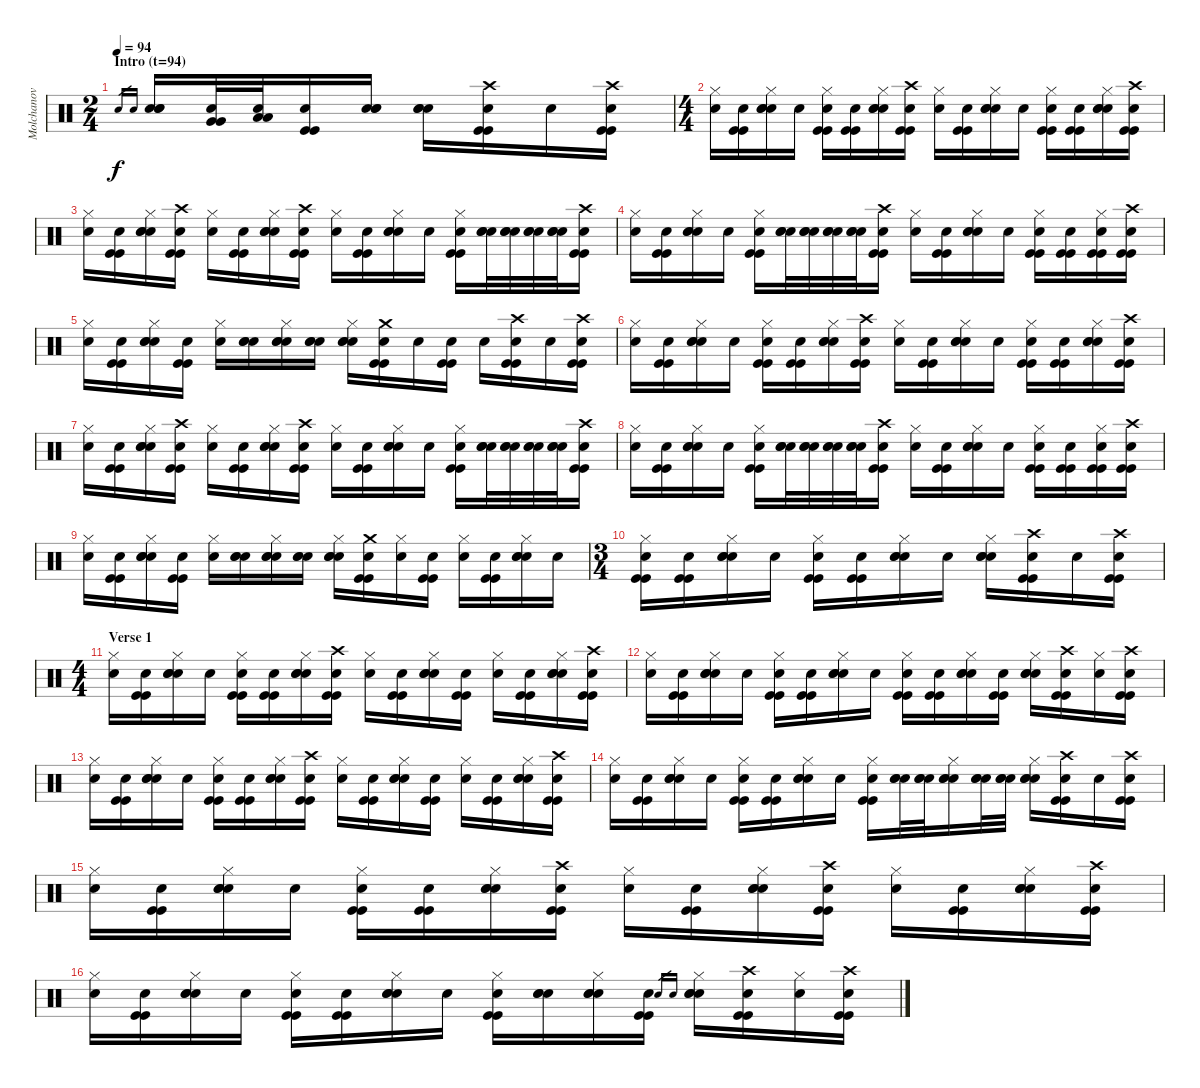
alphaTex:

\track ("Molchanov" "Molchanov") {instrument percussion}
\staff {score}
\articulation defaults
\ts (2 4)
\section ("" "Intro (t=94)")
\tempo 94
\clef neutral
\ks c "Electric Snare (hit)".16{gr dy f} "Electric Snare (hit)".16{gr}
("Electric Snare (hit)" "Electric Snare (hit)" "Snare (hit)"{x}).16 ("Very Low Tom (hit)" "Very Low Tom (hit)" "Snare (hit)"{x}).32 ("Low Floor Tom (hit)" "Low Floor Tom (hit)" "Snare (hit)"{x}).32 ("Kick (hit)" "Kick (hit)" "Snare (hit)"{x}).16 ("Electric Snare (hit)" "Electric Snare (hit)" "Snare (hit)"{x}).16 ("Electric Snare (hit)" "Electric Snare (hit)" "Snare (hit)"{x}).16 ("Crash high (hit)" "Kick (hit)" "Kick (hit)" "Snare (hit)"{x}).16 "Snare (hit)"{x}.16 ("Crash high (hit)" "Kick (hit)" "Kick (hit)" "Snare (hit)"{x}).16 |
\ts (4 4)
("Hi-Hat (closed)" "Snare (hit)"{x}).16 ("Kick (hit)" "Kick (hit)" "Snare (hit)"{x}).16 ("Hi-Hat (closed)" "Electric Snare (hit)" "Electric Snare (hit)" "Snare (hit)"{x}).16 "Snare (hit)"{x}.16 ("Hi-Hat (closed)" "Kick (hit)" "Kick (hit)" "Snare (hit)"{x}).16 ("Kick (hit)" "Kick (hit)" "Snare (hit)"{x}).16 ("Hi-Hat (closed)" "Electric Snare (hit)" "Electric Snare (hit)" "Snare (hit)"{x}).16 ("Crash high (hit)" "Kick (hit)" "Kick (hit)" "Snare (hit)"{x}).16 ("Hi-Hat (closed)" "Snare (hit)"{x}).16 ("Kick (hit)" "Kick (hit)" "Snare (hit)"{x}).16 ("Hi-Hat (closed)" "Electric Snare (hit)" "Electric Snare (hit)" "Snare (hit)"{x}).16 "Snare (hit)"{x}.16 ("Hi-Hat (closed)" "Kick (hit)" "Kick (hit)" "Snare (hit)"{x}).16 ("Kick (hit)" "Kick (hit)" "Snare (hit)"{x}).16 ("Hi-Hat (closed)" "Electric Snare (hit)" "Electric Snare (hit)" "Snare (hit)"{x}).16 ("Crash high (hit)" "Kick (hit)" "Kick (hit)" "Snare (hit)"{x}).16 |
("Hi-Hat (closed)" "Snare (hit)"{x}).16 ("Kick (hit)" "Kick (hit)" "Snare (hit)"{x}).16 ("Hi-Hat (closed)" "Electric Snare (hit)" "Electric Snare (hit)" "Snare (hit)"{x}).16 ("Crash high (hit)" "Kick (hit)" "Kick (hit)" "Snare (hit)"{x}).16 ("Hi-Hat (closed)" "Snare (hit)"{x}).16 ("Kick (hit)" "Kick (hit)" "Snare (hit)"{x}).16 ("Hi-Hat (closed)" "Electric Snare (hit)" "Electric Snare (hit)" "Snare (hit)"{x}).16 ("Crash high (hit)" "Kick (hit)" "Kick (hit)" "Snare (hit)"{x}).16 ("Hi-Hat (closed)" "Snare (hit)"{x}).16 ("Kick (hit)" "Kick (hit)" "Snare (hit)"{x}).16 ("Hi-Hat (closed)" "Electric Snare (hit)" "Electric Snare (hit)" "Snare (hit)"{x}).16 "Snare (hit)"{x}.16 ("Hi-Hat (closed)" "Kick (hit)" "Kick (hit)" "Snare (hit)"{x}).16 ("Electric Snare (hit)" "Electric Snare (hit)" "Snare (hit)"{x}).32 ("Electric Snare (hit)" "Electric Snare (hit)" "Snare (hit)"{x}).32 ("Electric Snare (hit)" "Electric Snare (hit)" "Snare (hit)"{x}).32 ("Electric Snare (hit)" "Electric Snare (hit)" "Snare (hit)"{x}).32 ("Crash high (hit)" "Kick (hit)" "Kick (hit)" "Snare (hit)"{x}).16 |
("Hi-Hat (closed)" "Snare (hit)"{x}).16 ("Kick (hit)" "Kick (hit)" "Snare (hit)"{x}).16 ("Hi-Hat (closed)" "Electric Snare (hit)" "Electric Snare (hit)" "Snare (hit)"{x}).16 "Snare (hit)"{x}.16 ("Hi-Hat (closed)" "Kick (hit)" "Kick (hit)" "Snare (hit)"{x}).16 ("Electric Snare (hit)" "Electric Snare (hit)" "Snare (hit)"{x}).32 ("Electric Snare (hit)" "Electric Snare (hit)" "Snare (hit)"{x}).32 ("Electric Snare (hit)" "Electric Snare (hit)" "Snare (hit)"{x}).32 ("Electric Snare (hit)" "Electric Snare (hit)" "Snare (hit)"{x}).32 ("Crash high (hit)" "Kick (hit)" "Kick (hit)" "Snare (hit)"{x}).16 ("Hi-Hat (closed)" "Snare (hit)"{x}).16 ("Kick (hit)" "Kick (hit)" "Snare (hit)"{x}).16 ("Hi-Hat (closed)" "Electric Snare (hit)" "Electric Snare (hit)" "Snare (hit)"{x}).16 "Snare (hit)"{x}.16 ("Hi-Hat (closed)" "Kick (hit)" "Kick (hit)" "Snare (hit)"{x}).16 ("Kick (hit)" "Kick (hit)" "Snare (hit)"{x}).16 ("Hi-Hat (closed)" "Kick (hit)" "Kick (hit)" "Snare (hit)"{x}).16 ("Crash high (hit)" "Kick (hit)" "Kick (hit)" "Snare (hit)"{x}).16 |
("Hi-Hat (closed)" "Snare (hit)"{x}).16 ("Kick (hit)" "Kick (hit)" "Snare (hit)"{x}).16 ("Hi-Hat (closed)" "Electric Snare (hit)" "Electric Snare (hit)" "Snare (hit)"{x}).16 ("Kick (hit)" "Kick (hit)" "Snare (hit)"{x}).16 ("Hi-Hat (closed)" "Snare (hit)"{x}).16 ("Electric Snare (hit)" "Electric Snare (hit)" "Snare (hit)"{x}).16 ("Hi-Hat (closed)" "Electric Snare (hit)" "Electric Snare (hit)" "Snare (hit)"{x}).16 ("Electric Snare (hit)" "Electric Snare (hit)" "Snare (hit)"{x}).16 ("Hi-Hat (closed)" "Electric Snare (hit)" "Electric Snare (hit)" "Snare (hit)"{x}).16 ("Crash medium (hit)" "Kick (hit)" "Kick (hit)" "Snare (hit)"{x}).16 "Snare (hit)"{x}.16 ("Kick (hit)" "Kick (hit)" "Snare (hit)"{x}).16 "Snare (hit)"{x}.16 ("Crash high (hit)" "Kick (hit)" "Kick (hit)" "Snare (hit)"{x}).16 "Snare (hit)"{x}.16 ("Crash high (hit)" "Kick (hit)" "Kick (hit)" "Snare (hit)"{x}).16 |
("Hi-Hat (closed)" "Snare (hit)"{x}).16 ("Kick (hit)" "Kick (hit)" "Snare (hit)"{x}).16 ("Hi-Hat (closed)" "Electric Snare (hit)" "Electric Snare (hit)" "Snare (hit)"{x}).16 "Snare (hit)"{x}.16 ("Hi-Hat (closed)" "Kick (hit)" "Kick (hit)" "Snare (hit)"{x}).16 ("Kick (hit)" "Kick (hit)" "Snare (hit)"{x}).16 ("Hi-Hat (closed)" "Electric Snare (hit)" "Electric Snare (hit)" "Snare (hit)"{x}).16 ("Crash high (hit)" "Kick (hit)" "Kick (hit)" "Snare (hit)"{x}).16 ("Hi-Hat (closed)" "Snare (hit)"{x}).16 ("Kick (hit)" "Kick (hit)" "Snare (hit)"{x}).16 ("Hi-Hat (closed)" "Electric Snare (hit)" "Electric Snare (hit)" "Snare (hit)"{x}).16 "Snare (hit)"{x}.16 ("Hi-Hat (closed)" "Kick (hit)" "Kick (hit)" "Snare (hit)"{x}).16 ("Kick (hit)" "Kick (hit)" "Snare (hit)"{x}).16 ("Hi-Hat (closed)" "Electric Snare (hit)" "Electric Snare (hit)" "Snare (hit)"{x}).16 ("Crash high (hit)" "Kick (hit)" "Kick (hit)" "Snare (hit)"{x}).16 |
("Hi-Hat (closed)" "Snare (hit)"{x}).16 ("Kick (hit)" "Kick (hit)" "Snare (hit)"{x}).16 ("Hi-Hat (closed)" "Electric Snare (hit)" "Electric Snare (hit)" "Snare (hit)"{x}).16 ("Crash high (hit)" "Kick (hit)" "Kick (hit)" "Snare (hit)"{x}).16 ("Hi-Hat (closed)" "Snare (hit)"{x}).16 ("Kick (hit)" "Kick (hit)" "Snare (hit)"{x}).16 ("Hi-Hat (closed)" "Electric Snare (hit)" "Electric Snare (hit)" "Snare (hit)"{x}).16 ("Crash high (hit)" "Kick (hit)" "Kick (hit)" "Snare (hit)"{x}).16 ("Hi-Hat (closed)" "Snare (hit)"{x}).16 ("Kick (hit)" "Kick (hit)" "Snare (hit)"{x}).16 ("Hi-Hat (closed)" "Electric Snare (hit)" "Electric Snare (hit)" "Snare (hit)"{x}).16 "Snare (hit)"{x}.16 ("Hi-Hat (closed)" "Kick (hit)" "Kick (hit)" "Snare (hit)"{x}).16 ("Electric Snare (hit)" "Electric Snare (hit)" "Snare (hit)"{x}).32 ("Electric Snare (hit)" "Electric Snare (hit)" "Snare (hit)"{x}).32 ("Electric Snare (hit)" "Electric Snare (hit)" "Snare (hit)"{x}).32 ("Electric Snare (hit)" "Electric Snare (hit)" "Snare (hit)"{x}).32 ("Crash high (hit)" "Kick (hit)" "Kick (hit)" "Snare (hit)"{x}).16 |
("Hi-Hat (closed)" "Snare (hit)"{x}).16 ("Kick (hit)" "Kick (hit)" "Snare (hit)"{x}).16 ("Hi-Hat (closed)" "Electric Snare (hit)" "Electric Snare (hit)" "Snare (hit)"{x}).16 "Snare (hit)"{x}.16 ("Hi-Hat (closed)" "Kick (hit)" "Kick (hit)" "Snare (hit)"{x}).16 ("Electric Snare (hit)" "Electric Snare (hit)" "Snare (hit)"{x}).32 ("Electric Snare (hit)" "Electric Snare (hit)" "Snare (hit)"{x}).32 ("Electric Snare (hit)" "Electric Snare (hit)" "Snare (hit)"{x}).32 ("Electric Snare (hit)" "Electric Snare (hit)" "Snare (hit)"{x}).32 ("Crash high (hit)" "Kick (hit)" "Kick (hit)" "Snare (hit)"{x}).16 ("Hi-Hat (closed)" "Snare (hit)"{x}).16 ("Kick (hit)" "Kick (hit)" "Snare (hit)"{x}).16 ("Hi-Hat (closed)" "Electric Snare (hit)" "Electric Snare (hit)" "Snare (hit)"{x}).16 "Snare (hit)"{x}.16 ("Hi-Hat (closed)" "Kick (hit)" "Kick (hit)" "Snare (hit)"{x}).16 ("Kick (hit)" "Kick (hit)" "Snare (hit)"{x}).16 ("Hi-Hat (closed)" "Kick (hit)" "Kick (hit)" "Snare (hit)"{x}).16 ("Crash high (hit)" "Kick (hit)" "Kick (hit)" "Snare (hit)"{x}).16 |
("Hi-Hat (closed)" "Snare (hit)"{x}).16 ("Kick (hit)" "Kick (hit)" "Snare (hit)"{x}).16 ("Hi-Hat (closed)" "Electric Snare (hit)" "Electric Snare (hit)" "Snare (hit)"{x}).16 ("Kick (hit)" "Kick (hit)" "Snare (hit)"{x}).16 ("Hi-Hat (closed)" "Snare (hit)"{x}).16 ("Electric Snare (hit)" "Electric Snare (hit)" "Snare (hit)"{x}).16 ("Hi-Hat (closed)" "Electric Snare (hit)" "Electric Snare (hit)" "Snare (hit)"{x}).16 ("Electric Snare (hit)" "Electric Snare (hit)" "Snare (hit)"{x}).16 ("Hi-Hat (closed)" "Electric Snare (hit)" "Electric Snare (hit)" "Snare (hit)"{x}).16 ("Crash medium (hit)" "Kick (hit)" "Kick (hit)" "Snare (hit)"{x}).16 ("Hi-Hat (closed)" "Snare (hit)"{x}).16 ("Kick (hit)" "Kick (hit)" "Snare (hit)"{x}).16 ("Hi-Hat (closed)" "Snare (hit)"{x}).16 ("Kick (hit)" "Kick (hit)" "Snare (hit)"{x}).16 ("Hi-Hat (closed)" "Electric Snare (hit)" "Electric Snare (hit)" "Snare (hit)"{x}).16 "Snare (hit)"{x}.16 |
\ts (3 4)
("Hi-Hat (closed)" "Kick (hit)" "Kick (hit)" "Snare (hit)"{x}).16 ("Kick (hit)" "Kick (hit)" "Snare (hit)"{x}).16 ("Hi-Hat (closed)" "Electric Snare (hit)" "Electric Snare (hit)" "Snare (hit)"{x}).16 "Snare (hit)"{x}.16 ("Hi-Hat (closed)" "Kick (hit)" "Kick (hit)" "Snare (hit)"{x}).16 ("Kick (hit)" "Kick (hit)" "Snare (hit)"{x}).16 ("Hi-Hat (closed)" "Electric Snare (hit)" "Electric Snare (hit)" "Snare (hit)"{x}).16 "Snare (hit)"{x}.16 ("Hi-Hat (closed)" "Electric Snare (hit)" "Electric Snare (hit)" "Snare (hit)"{x}).16 ("Crash high (hit)" "Kick (hit)" "Kick (hit)" "Snare (hit)"{x}).16 "Snare (hit)"{x}.16 ("Crash high (hit)" "Kick (hit)" "Kick (hit)" "Snare (hit)"{x}).16 |
\ts (4 4)
\section ("" "Verse 1")
("Hi-Hat (closed)" "Snare (hit)"{x}).16 ("Kick (hit)" "Kick (hit)" "Snare (hit)"{x}).16 ("Hi-Hat (closed)" "Electric Snare (hit)" "Electric Snare (hit)" "Snare (hit)"{x}).16 "Snare (hit)"{x}.16 ("Hi-Hat (closed)" "Kick (hit)" "Kick (hit)" "Snare (hit)"{x}).16 ("Kick (hit)" "Kick (hit)" "Snare (hit)"{x}).16 ("Hi-Hat (closed)" "Electric Snare (hit)" "Electric Snare (hit)" "Snare (hit)"{x}).16 ("Crash high (hit)" "Kick (hit)" "Kick (hit)" "Snare (hit)"{x}).16 ("Hi-Hat (closed)" "Snare (hit)"{x}).16 ("Kick (hit)" "Kick (hit)" "Snare (hit)"{x}).16 ("Hi-Hat (closed)" "Electric Snare (hit)" "Electric Snare (hit)" "Snare (hit)"{x}).16 ("Kick (hit)" "Kick (hit)" "Snare (hit)"{x}).16 ("Hi-Hat (closed)" "Snare (hit)"{x}).16 ("Kick (hit)" "Kick (hit)" "Snare (hit)"{x}).16 ("Hi-Hat (closed)" "Electric Snare (hit)" "Electric Snare (hit)" "Snare (hit)"{x}).16 ("Crash high (hit)" "Kick (hit)" "Kick (hit)" "Snare (hit)"{x}).16 |
("Hi-Hat (closed)" "Snare (hit)"{x}).16 ("Kick (hit)" "Kick (hit)" "Snare (hit)"{x}).16 ("Hi-Hat (closed)" "Electric Snare (hit)" "Electric Snare (hit)" "Snare (hit)"{x}).16 "Snare (hit)"{x}.16 ("Hi-Hat (closed)" "Kick (hit)" "Kick (hit)" "Snare (hit)"{x}).16 ("Kick (hit)" "Kick (hit)" "Snare (hit)"{x}).16 ("Hi-Hat (closed)" "Electric Snare (hit)" "Electric Snare (hit)" "Snare (hit)"{x}).16 "Snare (hit)"{x}.16 ("Hi-Hat (closed)" "Kick (hit)" "Kick (hit)" "Snare (hit)"{x}).16 ("Kick (hit)" "Kick (hit)" "Snare (hit)"{x}).16 ("Hi-Hat (closed)" "Electric Snare (hit)" "Electric Snare (hit)" "Snare (hit)"{x}).16 ("Kick (hit)" "Kick (hit)" "Snare (hit)"{x}).16 ("Hi-Hat (closed)" "Electric Snare (hit)" "Electric Snare (hit)" "Snare (hit)"{x}).16 ("Crash high (hit)" "Kick (hit)" "Kick (hit)" "Snare (hit)"{x}).16 ("Hi-Hat (closed)" "Snare (hit)"{x}).16 ("Crash high (hit)" "Kick (hit)" "Kick (hit)" "Snare (hit)"{x}).16 |
("Hi-Hat (closed)" "Snare (hit)"{x}).16 ("Kick (hit)" "Kick (hit)" "Snare (hit)"{x}).16 ("Hi-Hat (closed)" "Electric Snare (hit)" "Electric Snare (hit)" "Snare (hit)"{x}).16 "Snare (hit)"{x}.16 ("Hi-Hat (closed)" "Kick (hit)" "Kick (hit)" "Snare (hit)"{x}).16 ("Kick (hit)" "Kick (hit)" "Snare (hit)"{x}).16 ("Hi-Hat (closed)" "Electric Snare (hit)" "Electric Snare (hit)" "Snare (hit)"{x}).16 ("Crash high (hit)" "Kick (hit)" "Kick (hit)" "Snare (hit)"{x}).16 ("Hi-Hat (closed)" "Snare (hit)"{x}).16 ("Kick (hit)" "Kick (hit)" "Snare (hit)"{x}).16 ("Hi-Hat (closed)" "Electric Snare (hit)" "Electric Snare (hit)" "Snare (hit)"{x}).16 ("Kick (hit)" "Kick (hit)" "Snare (hit)"{x}).16 ("Hi-Hat (closed)" "Snare (hit)"{x}).16 ("Kick (hit)" "Kick (hit)" "Snare (hit)"{x}).16 ("Hi-Hat (closed)" "Electric Snare (hit)" "Electric Snare (hit)" "Snare (hit)"{x}).16 ("Crash high (hit)" "Kick (hit)" "Kick (hit)" "Snare (hit)"{x}).16 |
("Hi-Hat (closed)" "Snare (hit)"{x}).16 ("Kick (hit)" "Kick (hit)" "Snare (hit)"{x}).16 ("Hi-Hat (closed)" "Electric Snare (hit)" "Electric Snare (hit)" "Snare (hit)"{x}).16 "Snare (hit)"{x}.16 ("Hi-Hat (closed)" "Kick (hit)" "Kick (hit)" "Snare (hit)"{x}).16 ("Kick (hit)" "Kick (hit)" "Snare (hit)"{x}).16 ("Hi-Hat (closed)" "Electric Snare (hit)" "Electric Snare (hit)" "Snare (hit)"{x}).16 "Snare (hit)"{x}.16 ("Hi-Hat (closed)" "Kick (hit)" "Kick (hit)" "Snare (hit)"{x}).16 ("Electric Snare (hit)" "Electric Snare (hit)" "Snare (hit)"{x}).32 ("Electric Snare (hit)" "Electric Snare (hit)" "Snare (hit)"{x}).32 ("Hi-Hat (closed)" "Electric Snare (hit)" "Electric Snare (hit)" "Snare (hit)"{x}).16 ("Electric Snare (hit)" "Electric Snare (hit)" "Snare (hit)"{x}).32 ("Electric Snare (hit)" "Electric Snare (hit)" "Snare (hit)"{x}).32 ("Hi-Hat (closed)" "Electric Snare (hit)" "Electric Snare (hit)" "Snare (hit)"{x}).16 ("Crash high (hit)" "Kick (hit)" "Kick (hit)" "Snare (hit)"{x}).16 "Snare (hit)"{x}.16 ("Crash high (hit)" "Kick (hit)" "Kick (hit)" "Snare (hit)"{x}).16 |
("Hi-Hat (closed)" "Snare (hit)"{x}).16 ("Kick (hit)" "Kick (hit)" "Snare (hit)"{x}).16 ("Hi-Hat (closed)" "Electric Snare (hit)" "Electric Snare (hit)" "Snare (hit)"{x}).16 "Snare (hit)"{x}.16 ("Hi-Hat (closed)" "Kick (hit)" "Kick (hit)" "Snare (hit)"{x}).16 ("Kick (hit)" "Kick (hit)" "Snare (hit)"{x}).16 ("Hi-Hat (closed)" "Electric Snare (hit)" "Electric Snare (hit)" "Snare (hit)"{x}).16 ("Crash high (hit)" "Kick (hit)" "Kick (hit)" "Snare (hit)"{x}).16 ("Hi-Hat (closed)" "Snare (hit)"{x}).16 ("Kick (hit)" "Kick (hit)" "Snare (hit)"{x}).16 ("Hi-Hat (closed)" "Electric Snare (hit)" "Electric Snare (hit)" "Snare (hit)"{x}).16 ("Crash high (hit)" "Kick (hit)" "Kick (hit)" "Snare (hit)"{x}).16 ("Hi-Hat (closed)" "Snare (hit)"{x}).16 ("Kick (hit)" "Kick (hit)" "Snare (hit)"{x}).16 ("Hi-Hat (closed)" "Electric Snare (hit)" "Electric Snare (hit)" "Snare (hit)"{x}).16 ("Crash high (hit)" "Kick (hit)" "Kick (hit)" "Snare (hit)"{x}).16 |
("Hi-Hat (closed)" "Snare (hit)"{x}).16 ("Kick (hit)" "Kick (hit)" "Snare (hit)"{x}).16 ("Hi-Hat (closed)" "Electric Snare (hit)" "Electric Snare (hit)" "Snare (hit)"{x}).16 "Snare (hit)"{x}.16 ("Hi-Hat (closed)" "Kick (hit)" "Kick (hit)" "Snare (hit)"{x}).16 ("Kick (hit)" "Kick (hit)" "Snare (hit)"{x}).16 ("Hi-Hat (closed)" "Electric Snare (hit)" "Electric Snare (hit)" "Snare (hit)"{x}).16 "Snare (hit)"{x}.16 ("Hi-Hat (closed)" "Kick (hit)" "Kick (hit)" "Snare (hit)"{x}).16 ("Electric Snare (hit)" "Electric Snare (hit)" "Snare (hit)"{x}).16 ("Hi-Hat (closed)" "Electric Snare (hit)" "Electric Snare (hit)" "Snare (hit)"{x}).16 ("Kick (hit)" "Kick (hit)" "Snare (hit)"{x}).16 "Electric Snare (hit)".16{gr} "Electric Snare (hit)".16{gr} ("Hi-Hat (closed)" "Electric Snare (hit)" "Electric Snare (hit)" "Snare (hit)"{x}).16 ("Crash high (hit)" "Kick (hit)" "Kick (hit)" "Snare (hit)"{x}).16 ("Hi-Hat (closed)" "Snare (hit)"{x}).16 ("Crash high (hit)" "Kick (hit)" "Kick (hit)" "Snare (hit)"{x}).16
